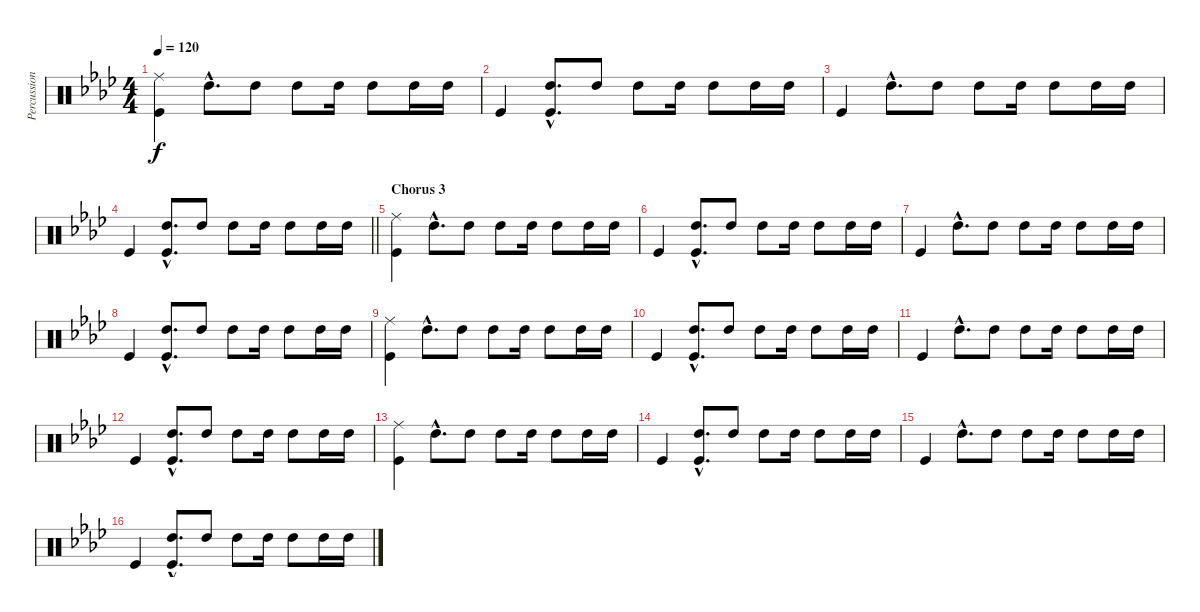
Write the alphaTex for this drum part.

\track ("Percussion" "Percussion") {instrument percussion}
\staff {score}
\articulation defaults
\ts (4 4)
\tempo 120
\clef neutral
\ks fminor
("Ride (middle)" "Kick (hit)").4{dy f} "High Tom (hit)"{hac}.8{d} "High Tom (hit)".8 "High Tom (hit)".8 "High Tom (hit)".16 "High Tom (hit)".8 "High Tom (hit)".16 "High Tom (hit)".16 |
"Kick (hit)".4 ("High Tom (hit)"{hac} "Kick (hit)"{hac}).8{d} "High Tom (hit)".8 "High Tom (hit)".8 "High Tom (hit)".16 "High Tom (hit)".8 "High Tom (hit)".16 "High Tom (hit)".16 |
"Kick (hit)".4 "High Tom (hit)"{hac}.8{d} "High Tom (hit)".8 "High Tom (hit)".8 "High Tom (hit)".16 "High Tom (hit)".8 "High Tom (hit)".16 "High Tom (hit)".16 |
\barLineRight lightlight "Kick (hit)".4
("High Tom (hit)"{hac} "Kick (hit)"{hac}).8{d} "High Tom (hit)".8 "High Tom (hit)".8 "High Tom (hit)".16 "High Tom (hit)".8 "High Tom (hit)".16 "High Tom (hit)".16 |
\section ("" "Chorus 3")
("Ride (middle)" "Kick (hit)").4 "High Tom (hit)"{hac}.8{d} "High Tom (hit)".8 "High Tom (hit)".8 "High Tom (hit)".16 "High Tom (hit)".8 "High Tom (hit)".16 "High Tom (hit)".16 |
"Kick (hit)".4 ("High Tom (hit)"{hac} "Kick (hit)"{hac}).8{d} "High Tom (hit)".8 "High Tom (hit)".8 "High Tom (hit)".16 "High Tom (hit)".8 "High Tom (hit)".16 "High Tom (hit)".16 |
"Kick (hit)".4 "High Tom (hit)"{hac}.8{d} "High Tom (hit)".8 "High Tom (hit)".8 "High Tom (hit)".16 "High Tom (hit)".8 "High Tom (hit)".16 "High Tom (hit)".16 |
"Kick (hit)".4 ("High Tom (hit)"{hac} "Kick (hit)"{hac}).8{d} "High Tom (hit)".8 "High Tom (hit)".8 "High Tom (hit)".16 "High Tom (hit)".8 "High Tom (hit)".16 "High Tom (hit)".16 |
("Ride (middle)" "Kick (hit)").4 "High Tom (hit)"{hac}.8{d} "High Tom (hit)".8 "High Tom (hit)".8 "High Tom (hit)".16 "High Tom (hit)".8 "High Tom (hit)".16 "High Tom (hit)".16 |
"Kick (hit)".4 ("High Tom (hit)"{hac} "Kick (hit)"{hac}).8{d} "High Tom (hit)".8 "High Tom (hit)".8 "High Tom (hit)".16 "High Tom (hit)".8 "High Tom (hit)".16 "High Tom (hit)".16 |
"Kick (hit)".4 "High Tom (hit)"{hac}.8{d} "High Tom (hit)".8 "High Tom (hit)".8 "High Tom (hit)".16 "High Tom (hit)".8 "High Tom (hit)".16 "High Tom (hit)".16 |
"Kick (hit)".4 ("High Tom (hit)"{hac} "Kick (hit)"{hac}).8{d} "High Tom (hit)".8 "High Tom (hit)".8 "High Tom (hit)".16 "High Tom (hit)".8 "High Tom (hit)".16 "High Tom (hit)".16 |
("Ride (middle)" "Kick (hit)").4 "High Tom (hit)"{hac}.8{d} "High Tom (hit)".8 "High Tom (hit)".8 "High Tom (hit)".16 "High Tom (hit)".8 "High Tom (hit)".16 "High Tom (hit)".16 |
"Kick (hit)".4 ("High Tom (hit)"{hac} "Kick (hit)"{hac}).8{d} "High Tom (hit)".8 "High Tom (hit)".8 "High Tom (hit)".16 "High Tom (hit)".8 "High Tom (hit)".16 "High Tom (hit)".16 |
"Kick (hit)".4 "High Tom (hit)"{hac}.8{d} "High Tom (hit)".8 "High Tom (hit)".8 "High Tom (hit)".16 "High Tom (hit)".8 "High Tom (hit)".16 "High Tom (hit)".16 |
"Kick (hit)".4 ("High Tom (hit)"{hac} "Kick (hit)"{hac}).8{d} "High Tom (hit)".8 "High Tom (hit)".8 "High Tom (hit)".16 "High Tom (hit)".8 "High Tom (hit)".16 "High Tom (hit)".16
